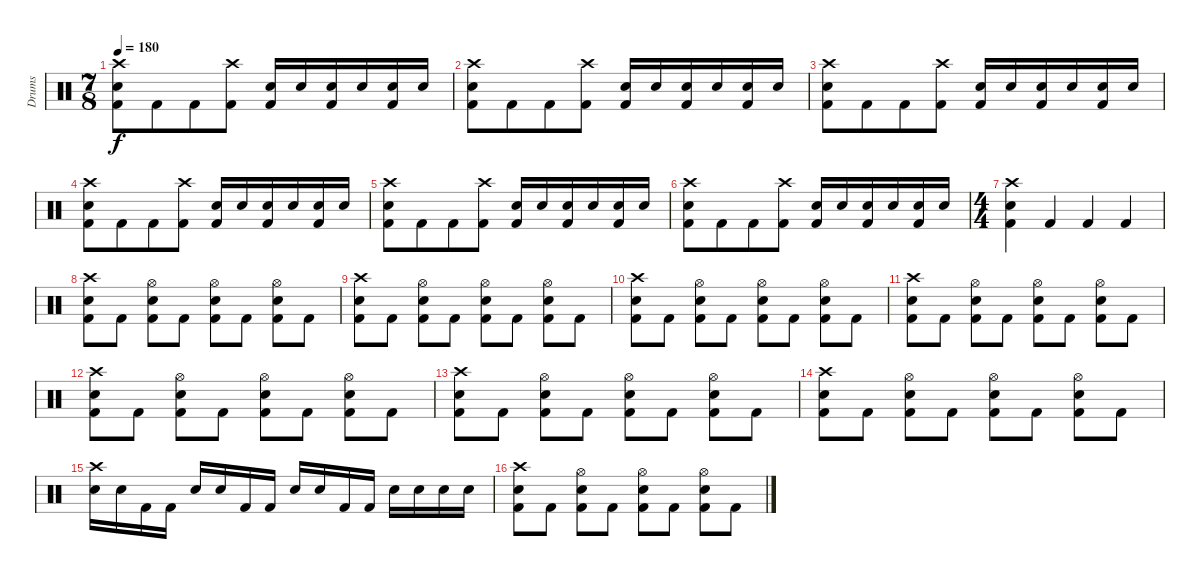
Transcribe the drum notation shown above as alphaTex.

\track ("Drums" "Drums") {instrument percussion}
\staff {score}
\articulation defaults
\ts (7 8)
\tempo 180
\clef neutral
\ks c
("Crash high (hit)" "Snare (hit) 2" "Kick (hit) 2").8{dy f} "Kick (hit) 2".8 "Kick (hit) 2".8 ("Crash high (hit)" "Kick (hit) 2").8 ("Kick (hit) 2" "Snare (hit) 2").16 "Snare (hit) 2".16 ("Kick (hit) 2" "Snare (hit) 2").16 "Snare (hit) 2".16 ("Kick (hit) 2" "Snare (hit) 2").16 "Snare (hit) 2".16 |
("Crash high (hit)" "Snare (hit) 2" "Kick (hit) 2").8 "Kick (hit) 2".8 "Kick (hit) 2".8 ("Crash high (hit)" "Kick (hit) 2").8 ("Kick (hit) 2" "Snare (hit) 2").16 "Snare (hit) 2".16 ("Kick (hit) 2" "Snare (hit) 2").16 "Snare (hit) 2".16 ("Kick (hit) 2" "Snare (hit) 2").16 "Snare (hit) 2".16 |
("Crash high (hit)" "Snare (hit) 2" "Kick (hit) 2").8 "Kick (hit) 2".8 "Kick (hit) 2".8 ("Crash high (hit)" "Kick (hit) 2").8 ("Kick (hit) 2" "Snare (hit) 2").16 "Snare (hit) 2".16 ("Kick (hit) 2" "Snare (hit) 2").16 "Snare (hit) 2".16 ("Kick (hit) 2" "Snare (hit) 2").16 "Snare (hit) 2".16 |
("Crash high (hit)" "Snare (hit) 2" "Kick (hit) 2").8 "Kick (hit) 2".8 "Kick (hit) 2".8 ("Crash high (hit)" "Kick (hit) 2").8 ("Kick (hit) 2" "Snare (hit) 2").16 "Snare (hit) 2".16 ("Kick (hit) 2" "Snare (hit) 2").16 "Snare (hit) 2".16 ("Kick (hit) 2" "Snare (hit) 2").16 "Snare (hit) 2".16 |
("Crash high (hit)" "Snare (hit) 2" "Kick (hit) 2").8 "Kick (hit) 2".8 "Kick (hit) 2".8 ("Crash high (hit)" "Kick (hit) 2").8 ("Kick (hit) 2" "Snare (hit) 2").16 "Snare (hit) 2".16 ("Kick (hit) 2" "Snare (hit) 2").16 "Snare (hit) 2".16 ("Kick (hit) 2" "Snare (hit) 2").16 "Snare (hit) 2".16 |
("Crash high (hit)" "Snare (hit) 2" "Kick (hit) 2").8 "Kick (hit) 2".8 "Kick (hit) 2".8 ("Crash high (hit)" "Kick (hit) 2").8 ("Kick (hit) 2" "Snare (hit) 2").16 "Snare (hit) 2".16 ("Kick (hit) 2" "Snare (hit) 2").16 "Snare (hit) 2".16 ("Kick (hit) 2" "Snare (hit) 2").16 "Snare (hit) 2".16 |
\ts (4 4)
("Crash high (hit)" "Snare (hit) 2" "Kick (hit) 2").4 "Kick (hit) 2".4 "Kick (hit) 2".4 "Kick (hit) 2".4 |
("Crash high (hit)" "Snare (hit) 2" "Kick (hit) 2").8 "Kick (hit) 2".8 ("Hi-Hat (open)" "Snare (hit) 2" "Kick (hit) 2").8 "Kick (hit) 2".8 ("Hi-Hat (open)" "Snare (hit) 2" "Kick (hit) 2").8 "Kick (hit) 2".8 ("Hi-Hat (open)" "Snare (hit) 2" "Kick (hit) 2").8 "Kick (hit) 2".8 |
("Crash high (hit)" "Snare (hit) 2" "Kick (hit) 2").8 "Kick (hit) 2".8 ("Hi-Hat (open)" "Snare (hit) 2" "Kick (hit) 2").8 "Kick (hit) 2".8 ("Hi-Hat (open)" "Snare (hit) 2" "Kick (hit) 2").8 "Kick (hit) 2".8 ("Hi-Hat (open)" "Snare (hit) 2" "Kick (hit) 2").8 "Kick (hit) 2".8 |
("Crash high (hit)" "Snare (hit) 2" "Kick (hit) 2").8 "Kick (hit) 2".8 ("Hi-Hat (open)" "Snare (hit) 2" "Kick (hit) 2").8 "Kick (hit) 2".8 ("Hi-Hat (open)" "Snare (hit) 2" "Kick (hit) 2").8 "Kick (hit) 2".8 ("Hi-Hat (open)" "Snare (hit) 2" "Kick (hit) 2").8 "Kick (hit) 2".8 |
("Crash high (hit)" "Snare (hit) 2" "Kick (hit) 2").8 "Kick (hit) 2".8 ("Hi-Hat (open)" "Snare (hit) 2" "Kick (hit) 2").8 "Kick (hit) 2".8 ("Hi-Hat (open)" "Snare (hit) 2" "Kick (hit) 2").8 "Kick (hit) 2".8 ("Hi-Hat (open)" "Snare (hit) 2" "Kick (hit) 2").8 "Kick (hit) 2".8 |
("Crash high (hit)" "Snare (hit) 2" "Kick (hit) 2").8 "Kick (hit) 2".8 ("Hi-Hat (open)" "Snare (hit) 2" "Kick (hit) 2").8 "Kick (hit) 2".8 ("Hi-Hat (open)" "Snare (hit) 2" "Kick (hit) 2").8 "Kick (hit) 2".8 ("Hi-Hat (open)" "Snare (hit) 2" "Kick (hit) 2").8 "Kick (hit) 2".8 |
("Crash high (hit)" "Snare (hit) 2" "Kick (hit) 2").8 "Kick (hit) 2".8 ("Hi-Hat (open)" "Snare (hit) 2" "Kick (hit) 2").8 "Kick (hit) 2".8 ("Hi-Hat (open)" "Snare (hit) 2" "Kick (hit) 2").8 "Kick (hit) 2".8 ("Hi-Hat (open)" "Snare (hit) 2" "Kick (hit) 2").8 "Kick (hit) 2".8 |
("Crash high (hit)" "Snare (hit) 2" "Kick (hit) 2").8 "Kick (hit) 2".8 ("Hi-Hat (open)" "Snare (hit) 2" "Kick (hit) 2").8 "Kick (hit) 2".8 ("Hi-Hat (open)" "Snare (hit) 2" "Kick (hit) 2").8 "Kick (hit) 2".8 ("Hi-Hat (open)" "Snare (hit) 2" "Kick (hit) 2").8 "Kick (hit) 2".8 |
("Crash high (hit)" "Snare (hit) 2").16 "Snare (hit) 2".16 "Kick (hit) 2".16 "Kick (hit) 2".16 "Snare (hit) 2".16 "Snare (hit) 2".16 "Kick (hit) 2".16 "Kick (hit) 2".16 "Snare (hit) 2".16 "Snare (hit) 2".16 "Kick (hit) 2".16 "Kick (hit) 2".16 "Snare (hit) 2".16 "Snare (hit) 2".16 "Snare (hit) 2".16 "Snare (hit) 2".16 |
("Crash high (hit)" "Snare (hit) 2" "Kick (hit) 2").8 "Kick (hit) 2".8 ("Hi-Hat (open)" "Snare (hit) 2" "Kick (hit) 2").8 "Kick (hit) 2".8 ("Hi-Hat (open)" "Snare (hit) 2" "Kick (hit) 2").8 "Kick (hit) 2".8 ("Hi-Hat (open)" "Snare (hit) 2" "Kick (hit) 2").8 "Kick (hit) 2".8
